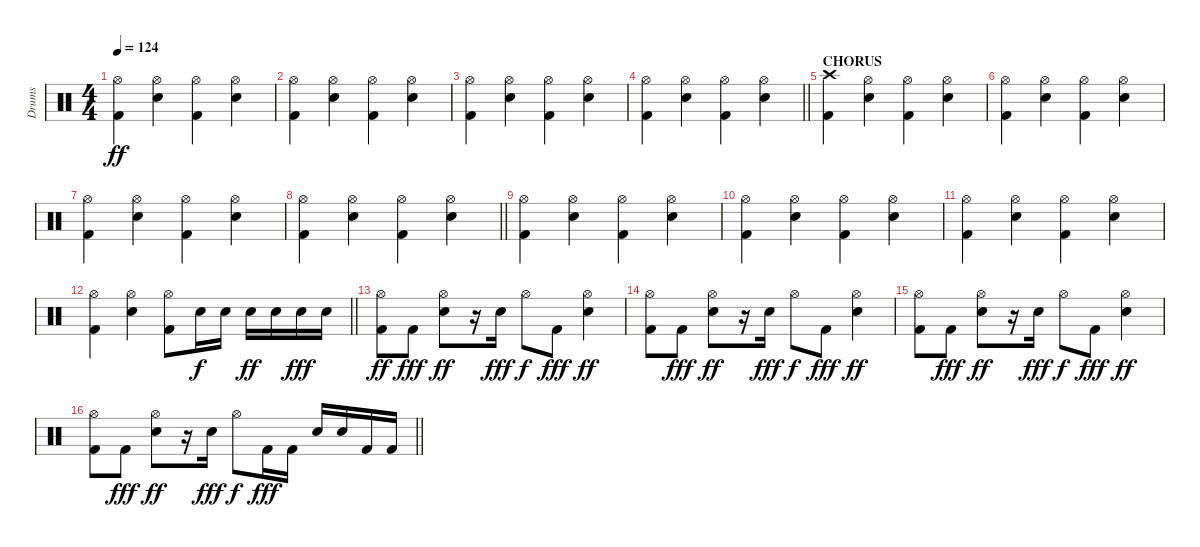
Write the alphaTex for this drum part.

\track ("Drums" "Drums") {instrument percussion}
\staff {score}
\articulation defaults
\ts (4 4)
\section ("" "")
\tempo 124
\clef neutral
\ks c
("Hi-Hat (open)" "Kick (hit) 2").4{dy ff} ("Hi-Hat (open)" "Electric Snare (hit)").4 ("Hi-Hat (open)" "Kick (hit) 2").4 ("Hi-Hat (open)" "Electric Snare (hit)").4 |
("Hi-Hat (open)" "Kick (hit) 2").4 ("Hi-Hat (open)" "Electric Snare (hit)").4 ("Hi-Hat (open)" "Kick (hit) 2").4 ("Hi-Hat (open)" "Electric Snare (hit)").4 |
("Hi-Hat (open)" "Kick (hit) 2").4 ("Hi-Hat (open)" "Electric Snare (hit)").4 ("Hi-Hat (open)" "Kick (hit) 2").4 ("Hi-Hat (open)" "Electric Snare (hit)").4 |
\barLineRight lightlight
("Hi-Hat (open)" "Kick (hit) 2").4 ("Hi-Hat (open)" "Electric Snare (hit)").4 ("Hi-Hat (open)" "Kick (hit) 2").4 ("Hi-Hat (open)" "Electric Snare (hit)").4 |
\section ("" "CHORUS")
("Crash high (hit)" "Kick (hit) 2").4 ("Hi-Hat (open)" "Electric Snare (hit)").4 ("Hi-Hat (open)" "Kick (hit) 2").4 ("Hi-Hat (open)" "Electric Snare (hit)").4 |
("Hi-Hat (open)" "Kick (hit) 2").4 ("Hi-Hat (open)" "Electric Snare (hit)").4 ("Hi-Hat (open)" "Kick (hit) 2").4 ("Hi-Hat (open)" "Electric Snare (hit)").4 |
("Hi-Hat (open)" "Kick (hit) 2").4 ("Hi-Hat (open)" "Electric Snare (hit)").4 ("Hi-Hat (open)" "Kick (hit) 2").4 ("Hi-Hat (open)" "Electric Snare (hit)").4 |
\barLineRight lightlight
("Hi-Hat (open)" "Kick (hit) 2").4 ("Hi-Hat (open)" "Electric Snare (hit)").4 ("Hi-Hat (open)" "Kick (hit) 2").4 ("Hi-Hat (open)" "Electric Snare (hit)").4 |
\section ("" "")
("Hi-Hat (open)" "Kick (hit) 2").4 ("Hi-Hat (open)" "Electric Snare (hit)").4 ("Hi-Hat (open)" "Kick (hit) 2").4 ("Hi-Hat (open)" "Electric Snare (hit)").4 |
("Hi-Hat (open)" "Kick (hit) 2").4 ("Hi-Hat (open)" "Electric Snare (hit)").4 ("Hi-Hat (open)" "Kick (hit) 2").4 ("Hi-Hat (open)" "Electric Snare (hit)").4 |
("Hi-Hat (open)" "Kick (hit) 2").4 ("Hi-Hat (open)" "Electric Snare (hit)").4 ("Hi-Hat (open)" "Kick (hit) 2").4 ("Hi-Hat (open)" "Electric Snare (hit)").4 |
\barLineRight lightlight
("Hi-Hat (open)" "Kick (hit) 2").4 ("Hi-Hat (open)" "Electric Snare (hit)").4 ("Hi-Hat (open)" "Kick (hit) 2").8 "Electric Snare (hit)".16{dy f} "Electric Snare (hit)".16 "Electric Snare (hit)".16{dy ff} "Electric Snare (hit)".16 "Electric Snare (hit)".16{dy fff} "Electric Snare (hit)".16 |
\section ("" "")
("Hi-Hat (open)" "Kick (hit) 2").8{dy ff} "Kick (hit) 2".8{dy fff} ("Hi-Hat (open)" "Electric Snare (hit)").8{dy ff} r.16 "Electric Snare (hit)".16{dy fff} "Hi-Hat (open)".8{dy f} "Kick (hit) 2".8{dy fff} ("Hi-Hat (open)" "Electric Snare (hit)").4{dy ff} |
("Hi-Hat (open)" "Kick (hit) 2").8 "Kick (hit) 2".8{dy fff} ("Hi-Hat (open)" "Electric Snare (hit)").8{dy ff} r.16 "Electric Snare (hit)".16{dy fff} "Hi-Hat (open)".8{dy f} "Kick (hit) 2".8{dy fff} ("Hi-Hat (open)" "Electric Snare (hit)").4{dy ff} |
("Hi-Hat (open)" "Kick (hit) 2").8 "Kick (hit) 2".8{dy fff} ("Hi-Hat (open)" "Electric Snare (hit)").8{dy ff} r.16 "Electric Snare (hit)".16{dy fff} "Hi-Hat (open)".8{dy f} "Kick (hit) 2".8{dy fff} ("Hi-Hat (open)" "Electric Snare (hit)").4{dy ff} |
\barLineRight lightlight
("Hi-Hat (open)" "Kick (hit) 2").8 "Kick (hit) 2".8{dy fff} ("Hi-Hat (open)" "Electric Snare (hit)").8{dy ff} r.16 "Electric Snare (hit)".16{dy fff} "Hi-Hat (open)".8{dy f} "Kick (hit) 2".16{dy fff} "Kick (hit) 2".16 "Electric Snare (hit)".16 "Electric Snare (hit)".16 "Kick (hit) 2".16 "Kick (hit) 2".16
